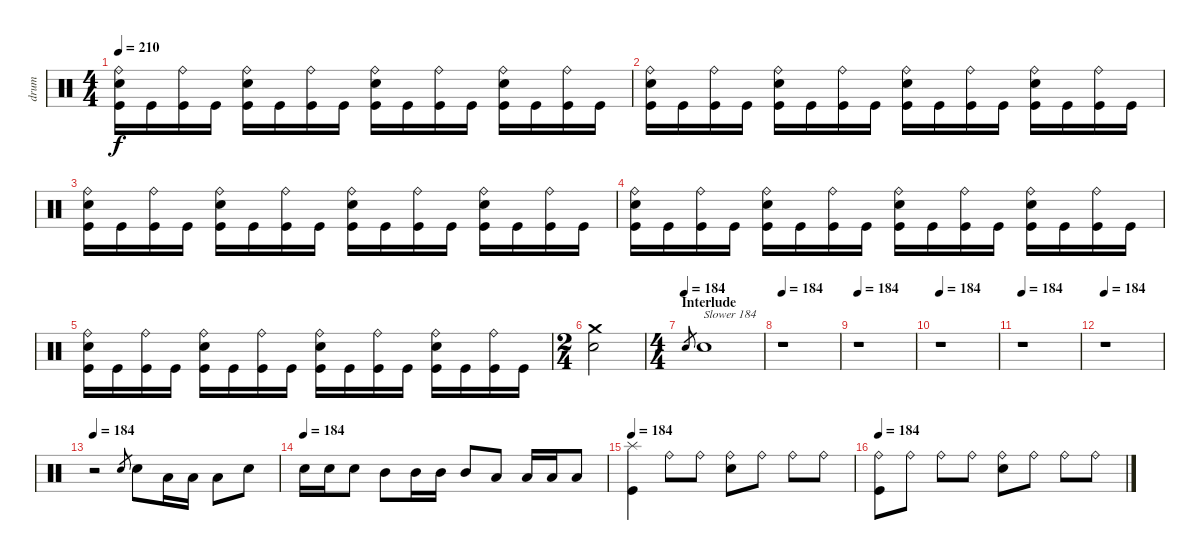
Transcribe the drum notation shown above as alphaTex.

\track ("drum" "drum") {instrument percussion}
\staff {score}
\articulation defaults
\ts (4 4)
\tempo 210
\clef neutral
\ks c
("Kick (hit)" "Electric Snare (hit)" "Ride (bell)").16{dy f} "Kick (hit)".16 ("Kick (hit)" "Ride (bell)").16 "Kick (hit)".16 ("Kick (hit)" "Electric Snare (hit)" "Ride (bell)").16 "Kick (hit)".16 ("Kick (hit)" "Ride (bell)").16 "Kick (hit)".16 ("Kick (hit)" "Electric Snare (hit)" "Ride (bell)").16 "Kick (hit)".16 ("Kick (hit)" "Ride (bell)").16 "Kick (hit)".16 ("Kick (hit)" "Electric Snare (hit)" "Ride (bell)").16 "Kick (hit)".16 ("Kick (hit)" "Ride (bell)").16 "Kick (hit)".16 |
("Kick (hit)" "Electric Snare (hit)" "Ride (bell)").16 "Kick (hit)".16 ("Kick (hit)" "Ride (bell)").16 "Kick (hit)".16 ("Kick (hit)" "Electric Snare (hit)" "Ride (bell)").16 "Kick (hit)".16 ("Kick (hit)" "Ride (bell)").16 "Kick (hit)".16 ("Kick (hit)" "Electric Snare (hit)" "Ride (bell)").16 "Kick (hit)".16 ("Kick (hit)" "Ride (bell)").16 "Kick (hit)".16 ("Kick (hit)" "Electric Snare (hit)" "Ride (bell)").16 "Kick (hit)".16 ("Kick (hit)" "Ride (bell)").16 "Kick (hit)".16 |
("Kick (hit)" "Electric Snare (hit)" "Ride (bell)").16 "Kick (hit)".16 ("Kick (hit)" "Ride (bell)").16 "Kick (hit)".16 ("Kick (hit)" "Electric Snare (hit)" "Ride (bell)").16 "Kick (hit)".16 ("Kick (hit)" "Ride (bell)").16 "Kick (hit)".16 ("Kick (hit)" "Electric Snare (hit)" "Ride (bell)").16 "Kick (hit)".16 ("Kick (hit)" "Ride (bell)").16 "Kick (hit)".16 ("Kick (hit)" "Electric Snare (hit)" "Ride (bell)").16 "Kick (hit)".16 ("Kick (hit)" "Ride (bell)").16 "Kick (hit)".16 |
("Kick (hit)" "Electric Snare (hit)" "Ride (bell)").16 "Kick (hit)".16 ("Kick (hit)" "Ride (bell)").16 "Kick (hit)".16 ("Kick (hit)" "Electric Snare (hit)" "Ride (bell)").16 "Kick (hit)".16 ("Kick (hit)" "Ride (bell)").16 "Kick (hit)".16 ("Kick (hit)" "Electric Snare (hit)" "Ride (bell)").16 "Kick (hit)".16 ("Kick (hit)" "Ride (bell)").16 "Kick (hit)".16 ("Kick (hit)" "Electric Snare (hit)" "Ride (bell)").16 "Kick (hit)".16 ("Kick (hit)" "Ride (bell)").16 "Kick (hit)".16 |
("Kick (hit)" "Electric Snare (hit)" "Ride (bell)").16 "Kick (hit)".16 ("Kick (hit)" "Ride (bell)").16 "Kick (hit)".16 ("Kick (hit)" "Electric Snare (hit)" "Ride (bell)").16 "Kick (hit)".16 ("Kick (hit)" "Ride (bell)").16 "Kick (hit)".16 ("Kick (hit)" "Electric Snare (hit)" "Ride (bell)").16 "Kick (hit)".16 ("Kick (hit)" "Ride (bell)").16 "Kick (hit)".16 ("Kick (hit)" "Electric Snare (hit)" "Ride (bell)").16 "Kick (hit)".16 ("Kick (hit)" "Ride (bell)").16 "Kick (hit)".16 |
\ts (2 4)
("Electric Snare (hit)" "Crash medium (hit)").2 |
\ts (4 4)
\section ("" "Interlude")
\tempo (184)
"Electric Snare (hit)".8{gr} "Electric Snare (hit)".1{txt "Slower 184"} |
\tempo 184
r.1 |
\tempo 184
r.1 |
\tempo 184
r.1 |
\tempo 184
r.1 |
\tempo 184
r.1 |
\tempo 184
r.2 "Electric Snare (hit)".8{gr} "Electric Snare (hit)".8 "Low Tom (hit)".16 "Low Tom (hit)".16 "Low Tom (hit)".8 "Electric Snare (hit)".8 |
\tempo (184)
"Electric Snare (hit)".16 "Electric Snare (hit)".16 "Electric Snare (hit)".8 "Mid Tom (hit)".8 "Mid Tom (hit)".16 "Mid Tom (hit)".16 "Mid Tom (hit)".8 "Low Tom (hit)".8 "Low Tom (hit)".16 "Low Tom (hit)".16 "Low Tom (hit)".8 |
\tempo 184
("Kick (hit)" "Splash (hit)").4 "Ride (bell)".8 "Ride (bell)".8 ("Electric Snare (hit)" "Ride (bell)").8 "Ride (bell)".8 "Ride (bell)".8 "Ride (bell)".8 |
\tempo 184
("Kick (hit)" "Ride (bell)").8 "Ride (bell)".8 "Ride (bell)".8 "Ride (bell)".8 ("Electric Snare (hit)" "Ride (bell)").8 "Ride (bell)".8 "Ride (bell)".8 "Ride (bell)".8
